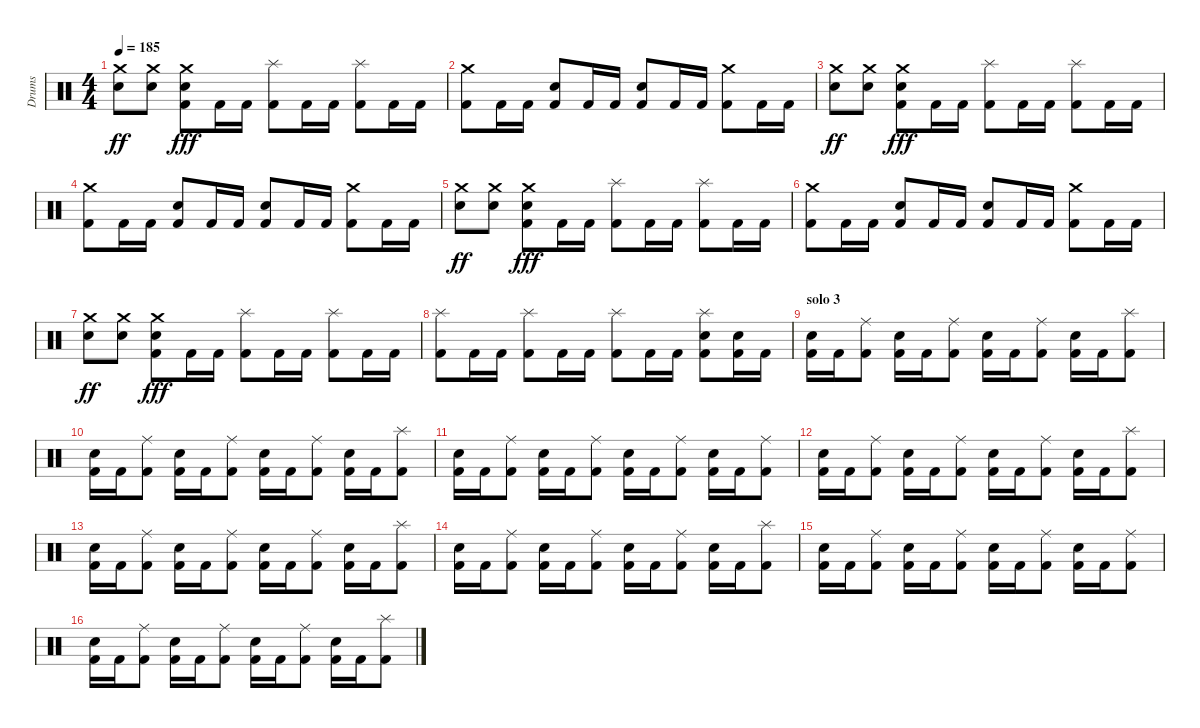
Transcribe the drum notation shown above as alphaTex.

\track ("Drums" "Drums") {instrument percussion}
\staff {score}
\articulation defaults
\ts (4 4)
\tempo 185
\clef neutral
\ks c
("Crash medium (hit)" "Electric Snare (hit)").8{dy ff} ("Crash medium (hit)" "Electric Snare (hit)").8 ("Crash medium (hit)" "Electric Snare (hit)" "Kick (hit) 2").8{dy fff} "Kick (hit) 2".16 "Kick (hit) 2".16 ("Splash (hit)" "Kick (hit) 2").8 "Kick (hit) 2".16 "Kick (hit) 2".16 ("Splash (hit)" "Kick (hit) 2").8 "Kick (hit) 2".16 "Kick (hit) 2".16 |
("Crash medium (hit)" "Kick (hit) 2").8 "Kick (hit) 2".16 "Kick (hit) 2".16 ("Electric Snare (hit)" "Kick (hit) 2").8 "Kick (hit) 2".16 "Kick (hit) 2".16 ("Electric Snare (hit)" "Kick (hit) 2").8 "Kick (hit) 2".16 "Kick (hit) 2".16 ("Crash medium (hit)" "Kick (hit) 2").8 "Kick (hit) 2".16 "Kick (hit) 2".16 |
("Crash medium (hit)" "Electric Snare (hit)").8{dy ff} ("Crash medium (hit)" "Electric Snare (hit)").8 ("Crash medium (hit)" "Electric Snare (hit)" "Kick (hit) 2").8{dy fff} "Kick (hit) 2".16 "Kick (hit) 2".16 ("Splash (hit)" "Kick (hit) 2").8 "Kick (hit) 2".16 "Kick (hit) 2".16 ("Splash (hit)" "Kick (hit) 2").8 "Kick (hit) 2".16 "Kick (hit) 2".16 |
("Crash medium (hit)" "Kick (hit) 2").8 "Kick (hit) 2".16 "Kick (hit) 2".16 ("Electric Snare (hit)" "Kick (hit) 2").8 "Kick (hit) 2".16 "Kick (hit) 2".16 ("Electric Snare (hit)" "Kick (hit) 2").8 "Kick (hit) 2".16 "Kick (hit) 2".16 ("Crash medium (hit)" "Kick (hit) 2").8 "Kick (hit) 2".16 "Kick (hit) 2".16 |
("Crash medium (hit)" "Electric Snare (hit)").8{dy ff} ("Crash medium (hit)" "Electric Snare (hit)").8 ("Crash medium (hit)" "Electric Snare (hit)" "Kick (hit) 2").8{dy fff} "Kick (hit) 2".16 "Kick (hit) 2".16 ("Splash (hit)" "Kick (hit) 2").8 "Kick (hit) 2".16 "Kick (hit) 2".16 ("Splash (hit)" "Kick (hit) 2").8 "Kick (hit) 2".16 "Kick (hit) 2".16 |
("Crash medium (hit)" "Kick (hit) 2").8 "Kick (hit) 2".16 "Kick (hit) 2".16 ("Electric Snare (hit)" "Kick (hit) 2").8 "Kick (hit) 2".16 "Kick (hit) 2".16 ("Electric Snare (hit)" "Kick (hit) 2").8 "Kick (hit) 2".16 "Kick (hit) 2".16 ("Crash medium (hit)" "Kick (hit) 2").8 "Kick (hit) 2".16 "Kick (hit) 2".16 |
("Crash medium (hit)" "Electric Snare (hit)").8{dy ff} ("Crash medium (hit)" "Electric Snare (hit)").8 ("Crash medium (hit)" "Electric Snare (hit)" "Kick (hit) 2").8{dy fff} "Kick (hit) 2".16 "Kick (hit) 2".16 ("Splash (hit)" "Kick (hit) 2").8 "Kick (hit) 2".16 "Kick (hit) 2".16 ("Splash (hit)" "Kick (hit) 2").8 "Kick (hit) 2".16 "Kick (hit) 2".16 |
("Splash (hit)" "Kick (hit) 2").8 "Kick (hit) 2".16 "Kick (hit) 2".16 ("Splash (hit)" "Kick (hit) 2").8 "Kick (hit) 2".16 "Kick (hit) 2".16 ("Splash (hit)" "Kick (hit) 2").8 "Kick (hit) 2".16 "Kick (hit) 2".16 ("Electric Snare (hit)" "Splash (hit)" "Kick (hit) 2").8 ("Electric Snare (hit)" "Kick (hit) 2").16 "Kick (hit) 2".16 |
\section ("" "solo 3")
("Snare (hit) 2" "Kick (hit) 2").16 "Kick (hit) 2".16 ("Ride (middle)" "Kick (hit) 2").8 ("Snare (hit) 2" "Kick (hit) 2").16 "Kick (hit) 2".16 ("Ride (middle)" "Kick (hit) 2").8 ("Snare (hit) 2" "Kick (hit) 2").16 "Kick (hit) 2".16 ("Ride (middle)" "Kick (hit) 2").8 ("Snare (hit) 2" "Kick (hit) 2").16 "Kick (hit) 2".16 ("Splash (hit)" "Kick (hit) 2").8 |
("Snare (hit) 2" "Kick (hit) 2").16 "Kick (hit) 2".16 ("Ride (middle)" "Kick (hit) 2").8 ("Snare (hit) 2" "Kick (hit) 2").16 "Kick (hit) 2".16 ("Ride (middle)" "Kick (hit) 2").8 ("Snare (hit) 2" "Kick (hit) 2").16 "Kick (hit) 2".16 ("Ride (middle)" "Kick (hit) 2").8 ("Snare (hit) 2" "Kick (hit) 2").16 "Kick (hit) 2".16 ("Splash (hit)" "Kick (hit) 2").8 |
("Snare (hit) 2" "Kick (hit) 2").16 "Kick (hit) 2".16 ("Ride (middle)" "Kick (hit) 2").8 ("Snare (hit) 2" "Kick (hit) 2").16 "Kick (hit) 2".16 ("Ride (middle)" "Kick (hit) 2").8 ("Snare (hit) 2" "Kick (hit) 2").16 "Kick (hit) 2".16 ("Ride (middle)" "Kick (hit) 2").8 ("Snare (hit) 2" "Kick (hit) 2").16 "Kick (hit) 2".16 ("Ride (middle)" "Kick (hit) 2").8 |
("Snare (hit) 2" "Kick (hit) 2").16 "Kick (hit) 2".16 ("Ride (middle)" "Kick (hit) 2").8 ("Snare (hit) 2" "Kick (hit) 2").16 "Kick (hit) 2".16 ("Ride (middle)" "Kick (hit) 2").8 ("Snare (hit) 2" "Kick (hit) 2").16 "Kick (hit) 2".16 ("Ride (middle)" "Kick (hit) 2").8 ("Snare (hit) 2" "Kick (hit) 2").16 "Kick (hit) 2".16 ("Splash (hit)" "Kick (hit) 2").8 |
("Snare (hit) 2" "Kick (hit) 2").16 "Kick (hit) 2".16 ("Ride (middle)" "Kick (hit) 2").8 ("Snare (hit) 2" "Kick (hit) 2").16 "Kick (hit) 2".16 ("Ride (middle)" "Kick (hit) 2").8 ("Snare (hit) 2" "Kick (hit) 2").16 "Kick (hit) 2".16 ("Ride (middle)" "Kick (hit) 2").8 ("Snare (hit) 2" "Kick (hit) 2").16 "Kick (hit) 2".16 ("Splash (hit)" "Kick (hit) 2").8 |
("Snare (hit) 2" "Kick (hit) 2").16 "Kick (hit) 2".16 ("Ride (middle)" "Kick (hit) 2").8 ("Snare (hit) 2" "Kick (hit) 2").16 "Kick (hit) 2".16 ("Ride (middle)" "Kick (hit) 2").8 ("Snare (hit) 2" "Kick (hit) 2").16 "Kick (hit) 2".16 ("Ride (middle)" "Kick (hit) 2").8 ("Snare (hit) 2" "Kick (hit) 2").16 "Kick (hit) 2".16 ("Splash (hit)" "Kick (hit) 2").8 |
("Snare (hit) 2" "Kick (hit) 2").16 "Kick (hit) 2".16 ("Ride (middle)" "Kick (hit) 2").8 ("Snare (hit) 2" "Kick (hit) 2").16 "Kick (hit) 2".16 ("Ride (middle)" "Kick (hit) 2").8 ("Snare (hit) 2" "Kick (hit) 2").16 "Kick (hit) 2".16 ("Ride (middle)" "Kick (hit) 2").8 ("Snare (hit) 2" "Kick (hit) 2").16 "Kick (hit) 2".16 ("Ride (middle)" "Kick (hit) 2").8 |
("Snare (hit) 2" "Kick (hit) 2").16 "Kick (hit) 2".16 ("Ride (middle)" "Kick (hit) 2").8 ("Snare (hit) 2" "Kick (hit) 2").16 "Kick (hit) 2".16 ("Ride (middle)" "Kick (hit) 2").8 ("Snare (hit) 2" "Kick (hit) 2").16 "Kick (hit) 2".16 ("Ride (middle)" "Kick (hit) 2").8 ("Snare (hit) 2" "Kick (hit) 2").16 "Kick (hit) 2".16 ("Splash (hit)" "Kick (hit) 2").8
